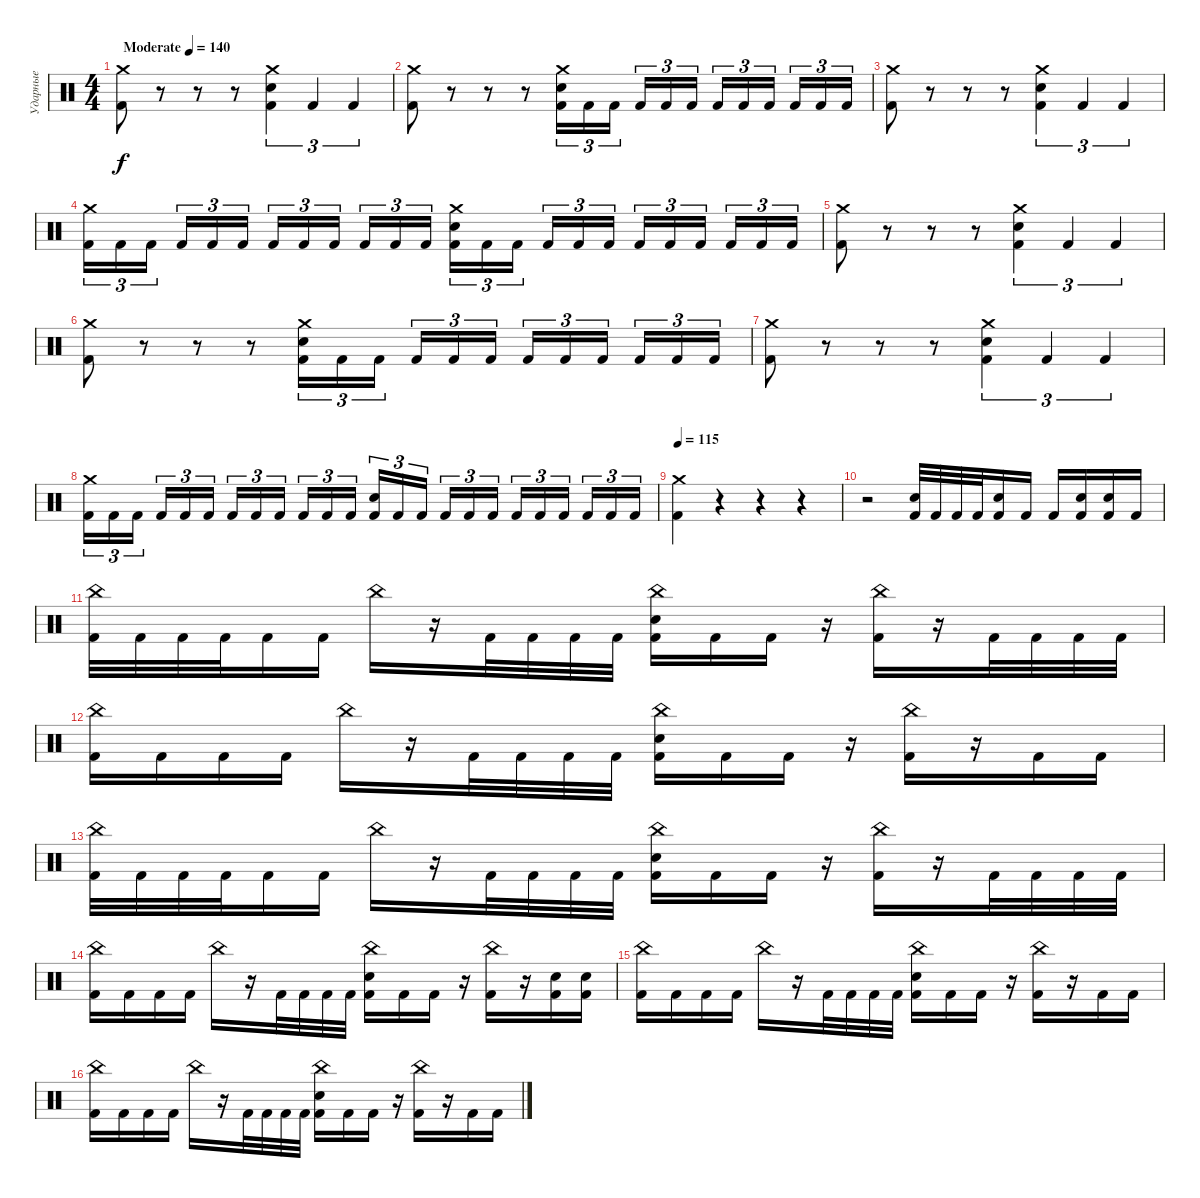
\track ("Ударные" "Ударные") {instrument percussion}
\staff {score}
\articulation defaults
\ts (4 4)
\tempo (140 "Moderate")
\clef neutral
\ks c
("Crash medium (hit)" "Kick (hit) 2").8{dy f} r.8 r.8 r.8 ("Crash medium (hit)" "Electric Snare (hit)" "Kick (hit) 2").4{tu (3 2)} "Kick (hit) 2".4{tu (3 2)} "Kick (hit) 2".4{tu (3 2)} |
("Crash medium (hit)" "Kick (hit) 2").8 r.8 r.8 r.8 ("Crash medium (hit)" "Electric Snare (hit)" "Kick (hit) 2").16{tu (3 2)} "Kick (hit) 2".16{tu (3 2)} "Kick (hit) 2".16{tu (3 2) beam splitsecondary} "Kick (hit) 2".16{tu (3 2)} "Kick (hit) 2".16{tu (3 2)} "Kick (hit) 2".16{tu (3 2)} "Kick (hit) 2".16{tu (3 2)} "Kick (hit) 2".16{tu (3 2)} "Kick (hit) 2".16{tu (3 2) beam splitsecondary} "Kick (hit) 2".16{tu (3 2)} "Kick (hit) 2".16{tu (3 2)} "Kick (hit) 2".16{tu (3 2)} |
("Crash medium (hit)" "Kick (hit) 2").8 r.8 r.8 r.8 ("Crash medium (hit)" "Electric Snare (hit)" "Kick (hit) 2").4{tu (3 2)} "Kick (hit) 2".4{tu (3 2)} "Kick (hit) 2".4{tu (3 2)} |
("Crash medium (hit)" "Kick (hit) 2").16{tu (3 2)} "Kick (hit) 2".16{tu (3 2)} "Kick (hit) 2".16{tu (3 2) beam splitsecondary} "Kick (hit) 2".16{tu (3 2)} "Kick (hit) 2".16{tu (3 2)} "Kick (hit) 2".16{tu (3 2)} "Kick (hit) 2".16{tu (3 2)} "Kick (hit) 2".16{tu (3 2)} "Kick (hit) 2".16{tu (3 2) beam splitsecondary} "Kick (hit) 2".16{tu (3 2)} "Kick (hit) 2".16{tu (3 2)} "Kick (hit) 2".16{tu (3 2)} ("Crash medium (hit)" "Electric Snare (hit)" "Kick (hit) 2").16{tu (3 2)} "Kick (hit) 2".16{tu (3 2)} "Kick (hit) 2".16{tu (3 2) beam splitsecondary} "Kick (hit) 2".16{tu (3 2)} "Kick (hit) 2".16{tu (3 2)} "Kick (hit) 2".16{tu (3 2)} "Kick (hit) 2".16{tu (3 2)} "Kick (hit) 2".16{tu (3 2)} "Kick (hit) 2".16{tu (3 2) beam splitsecondary} "Kick (hit) 2".16{tu (3 2)} "Kick (hit) 2".16{tu (3 2)} "Kick (hit) 2".16{tu (3 2)} |
("Crash medium (hit)" "Kick (hit) 2").8 r.8 r.8 r.8 ("Crash medium (hit)" "Electric Snare (hit)" "Kick (hit) 2").4{tu (3 2)} "Kick (hit) 2".4{tu (3 2)} "Kick (hit) 2".4{tu (3 2)} |
("Crash medium (hit)" "Kick (hit) 2").8 r.8 r.8 r.8 ("Crash medium (hit)" "Electric Snare (hit)" "Kick (hit) 2").16{tu (3 2)} "Kick (hit) 2".16{tu (3 2)} "Kick (hit) 2".16{tu (3 2) beam splitsecondary} "Kick (hit) 2".16{tu (3 2)} "Kick (hit) 2".16{tu (3 2)} "Kick (hit) 2".16{tu (3 2)} "Kick (hit) 2".16{tu (3 2)} "Kick (hit) 2".16{tu (3 2)} "Kick (hit) 2".16{tu (3 2) beam splitsecondary} "Kick (hit) 2".16{tu (3 2)} "Kick (hit) 2".16{tu (3 2)} "Kick (hit) 2".16{tu (3 2)} |
("Crash medium (hit)" "Kick (hit) 2").8 r.8 r.8 r.8 ("Crash medium (hit)" "Electric Snare (hit)" "Kick (hit) 2").4{tu (3 2)} "Kick (hit) 2".4{tu (3 2)} "Kick (hit) 2".4{tu (3 2)} |
("Crash medium (hit)" "Kick (hit) 2").16{tu (3 2)} "Kick (hit) 2".16{tu (3 2)} "Kick (hit) 2".16{tu (3 2) beam splitsecondary} "Kick (hit) 2".16{tu (3 2)} "Kick (hit) 2".16{tu (3 2)} "Kick (hit) 2".16{tu (3 2)} "Kick (hit) 2".16{tu (3 2)} "Kick (hit) 2".16{tu (3 2)} "Kick (hit) 2".16{tu (3 2) beam splitsecondary} "Kick (hit) 2".16{tu (3 2)} "Kick (hit) 2".16{tu (3 2)} "Kick (hit) 2".16{tu (3 2)} ("Electric Snare (hit)" "Kick (hit) 2").16{tu (3 2)} "Kick (hit) 2".16{tu (3 2)} "Kick (hit) 2".16{tu (3 2) beam splitsecondary} "Kick (hit) 2".16{tu (3 2)} "Kick (hit) 2".16{tu (3 2)} "Kick (hit) 2".16{tu (3 2)} "Kick (hit) 2".16{tu (3 2)} "Kick (hit) 2".16{tu (3 2)} "Kick (hit) 2".16{tu (3 2) beam splitsecondary} "Kick (hit) 2".16{tu (3 2)} "Kick (hit) 2".16{tu (3 2)} "Kick (hit) 2".16{tu (3 2)} |
\tempo 118
\tempo 115
("Crash medium (hit)" "Kick (hit) 2").4 r.4 r.4 r.4 |
r.2 ("Electric Snare (hit)" "Kick (hit) 2").32 "Kick (hit) 2".32 "Kick (hit) 2".32 "Kick (hit) 2".32 ("Electric Snare (hit)" "Kick (hit) 2").16 "Kick (hit) 2".16 "Kick (hit) 2".16 ("Electric Snare (hit)" "Kick (hit) 2").16 ("Electric Snare (hit)" "Kick (hit) 2").16 "Kick (hit) 2".16 |
("China (hit)" "Kick (hit) 2").32 "Kick (hit) 2".32 "Kick (hit) 2".32 "Kick (hit) 2".32 "Kick (hit) 2".16 "Kick (hit) 2".16 "China (hit)".16 r.16 "Kick (hit) 2".32 "Kick (hit) 2".32 "Kick (hit) 2".32 "Kick (hit) 2".32 ("China (hit)" "Electric Snare (hit)" "Kick (hit) 2").16 "Kick (hit) 2".16 "Kick (hit) 2".16 r.16 ("China (hit)" "Kick (hit) 2").16 r.16 "Kick (hit) 2".32 "Kick (hit) 2".32 "Kick (hit) 2".32 "Kick (hit) 2".32 |
("China (hit)" "Kick (hit) 2").16 "Kick (hit) 2".16 "Kick (hit) 2".16 "Kick (hit) 2".16 "China (hit)".16 r.16 "Kick (hit) 2".32 "Kick (hit) 2".32 "Kick (hit) 2".32 "Kick (hit) 2".32 ("China (hit)" "Electric Snare (hit)" "Kick (hit) 2").16 "Kick (hit) 2".16 "Kick (hit) 2".16 r.16 ("China (hit)" "Kick (hit) 2").16 r.16 "Kick (hit) 2".16 "Kick (hit) 2".16 |
("China (hit)" "Kick (hit) 2").32 "Kick (hit) 2".32 "Kick (hit) 2".32 "Kick (hit) 2".32 "Kick (hit) 2".16 "Kick (hit) 2".16 "China (hit)".16 r.16 "Kick (hit) 2".32 "Kick (hit) 2".32 "Kick (hit) 2".32 "Kick (hit) 2".32 ("China (hit)" "Electric Snare (hit)" "Kick (hit) 2").16 "Kick (hit) 2".16 "Kick (hit) 2".16 r.16 ("China (hit)" "Kick (hit) 2").16 r.16 "Kick (hit) 2".32 "Kick (hit) 2".32 "Kick (hit) 2".32 "Kick (hit) 2".32 |
("China (hit)" "Kick (hit) 2").16 "Kick (hit) 2".16 "Kick (hit) 2".16 "Kick (hit) 2".16 "China (hit)".16 r.16 "Kick (hit) 2".32 "Kick (hit) 2".32 "Kick (hit) 2".32 "Kick (hit) 2".32 ("China (hit)" "Electric Snare (hit)" "Kick (hit) 2").16 "Kick (hit) 2".16 "Kick (hit) 2".16 r.16 ("China (hit)" "Kick (hit) 2").16 r.16 ("Electric Snare (hit)" "Kick (hit) 2").16 ("Electric Snare (hit)" "Kick (hit) 2").16 |
("China (hit)" "Kick (hit) 2").16 "Kick (hit) 2".16 "Kick (hit) 2".16 "Kick (hit) 2".16 "China (hit)".16 r.16 "Kick (hit) 2".32 "Kick (hit) 2".32 "Kick (hit) 2".32 "Kick (hit) 2".32 ("China (hit)" "Electric Snare (hit)" "Kick (hit) 2").16 "Kick (hit) 2".16 "Kick (hit) 2".16 r.16 ("China (hit)" "Kick (hit) 2").16 r.16 "Kick (hit) 2".16 "Kick (hit) 2".16 |
("China (hit)" "Kick (hit) 2").16 "Kick (hit) 2".16 "Kick (hit) 2".16 "Kick (hit) 2".16 "China (hit)".16 r.16 "Kick (hit) 2".32 "Kick (hit) 2".32 "Kick (hit) 2".32 "Kick (hit) 2".32 ("China (hit)" "Electric Snare (hit)" "Kick (hit) 2").16 "Kick (hit) 2".16 "Kick (hit) 2".16 r.16 ("China (hit)" "Kick (hit) 2").16 r.16 "Kick (hit) 2".16 "Kick (hit) 2".16
